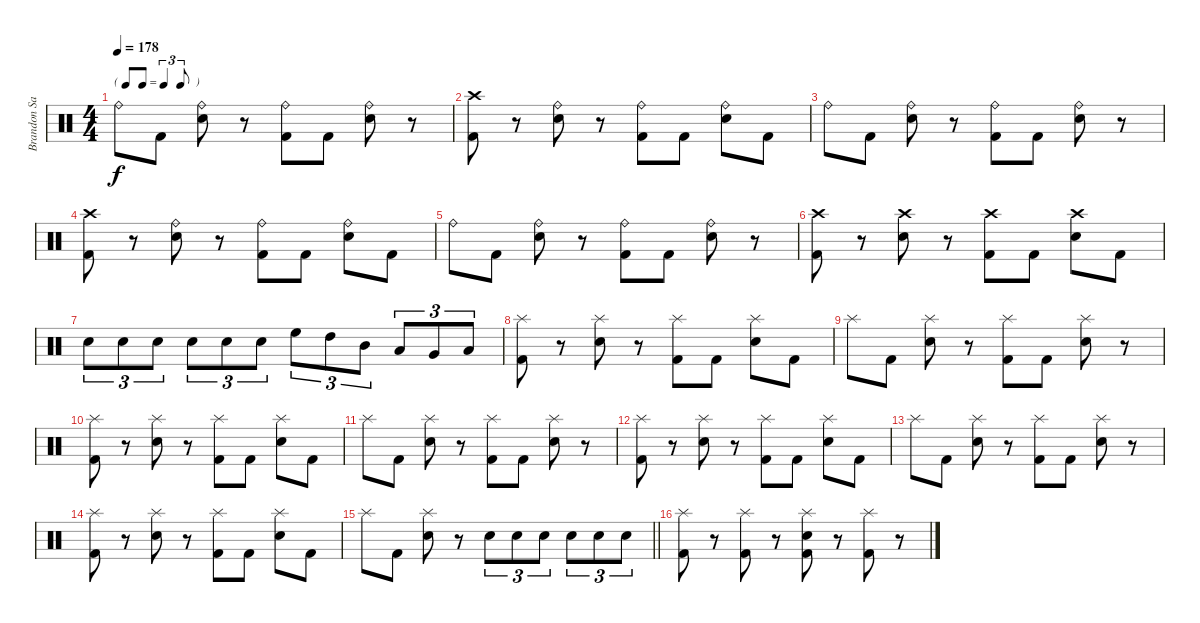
\track ("Brandon Saller" "Brandon Sa") {instrument percussion}
\staff {score}
\articulation defaults
\ts (4 4)
\tf triplet8th
\tempo 178
\clef neutral
\ks c "Ride (bell)".8{dy f} "Kick (hit) 2".8
("Ride (bell)" "Electric Snare (hit)").8 r.8 ("Ride (bell)" "Kick (hit) 2").8 "Kick (hit) 2".8 ("Ride (bell)" "Electric Snare (hit)").8 r.8 |
("Crash high (hit)" "Kick (hit) 2").8 r.8 ("Ride (bell)" "Electric Snare (hit)").8 r.8 ("Ride (bell)" "Kick (hit) 2").8 "Kick (hit) 2".8 ("Ride (bell)" "Electric Snare (hit)").8 "Kick (hit) 2".8 |
"Ride (bell)".8 "Kick (hit) 2".8 ("Ride (bell)" "Electric Snare (hit)").8 r.8 ("Ride (bell)" "Kick (hit) 2").8 "Kick (hit) 2".8 ("Ride (bell)" "Electric Snare (hit)").8 r.8 |
("Crash high (hit)" "Kick (hit) 2").8 r.8 ("Ride (bell)" "Electric Snare (hit)").8 r.8 ("Ride (bell)" "Kick (hit) 2").8 "Kick (hit) 2".8 ("Ride (bell)" "Electric Snare (hit)").8 "Kick (hit) 2".8 |
"Ride (bell)".8 "Kick (hit) 2".8 ("Ride (bell)" "Electric Snare (hit)").8 r.8 ("Ride (bell)" "Kick (hit) 2").8 "Kick (hit) 2".8 ("Ride (bell)" "Electric Snare (hit)").8 r.8 |
("Crash high (hit)" "Kick (hit) 2").8 r.8 ("Crash high (hit)" "Electric Snare (hit)").8 r.8 ("Crash high (hit)" "Kick (hit) 2").8 "Kick (hit) 2".8 ("Crash high (hit)" "Electric Snare (hit)").8 "Kick (hit) 2".8 |
"Electric Snare (hit)".8{tu (3 2)} "Electric Snare (hit)".8{tu (3 2)} "Electric Snare (hit)".8{tu (3 2)} "Electric Snare (hit)".8{tu (3 2)} "Electric Snare (hit)".8{tu (3 2)} "Electric Snare (hit)".8{tu (3 2)} "High Floor Tom (hit)".8{tu (3 2)} "High Tom (hit)".8{tu (3 2)} "Mid Tom (hit)".8{tu (3 2)} "Low Tom (hit)".8{tu (3 2)} "Very Low Tom (hit)".8{tu (3 2)} "Low Floor Tom (hit)".8{tu (3 2)} |
("Splash (hit)" "Kick (hit) 2").8 r.8 ("Splash (hit)" "Electric Snare (hit)").8 r.8 ("Splash (hit)" "Kick (hit) 2").8 "Kick (hit) 2".8 ("Splash (hit)" "Electric Snare (hit)").8 "Kick (hit) 2".8 |
"Splash (hit)".8 "Kick (hit) 2".8 ("Splash (hit)" "Electric Snare (hit)").8 r.8 ("Splash (hit)" "Kick (hit) 2").8 "Kick (hit) 2".8 ("Splash (hit)" "Electric Snare (hit)").8 r.8 |
("Splash (hit)" "Kick (hit) 2").8 r.8 ("Splash (hit)" "Electric Snare (hit)").8 r.8 ("Splash (hit)" "Kick (hit) 2").8 "Kick (hit) 2".8 ("Splash (hit)" "Electric Snare (hit)").8 "Kick (hit) 2".8 |
"Splash (hit)".8 "Kick (hit) 2".8 ("Splash (hit)" "Electric Snare (hit)").8 r.8 ("Splash (hit)" "Kick (hit) 2").8 "Kick (hit) 2".8 ("Splash (hit)" "Electric Snare (hit)").8 r.8 |
("Splash (hit)" "Kick (hit) 2").8 r.8 ("Splash (hit)" "Electric Snare (hit)").8 r.8 ("Splash (hit)" "Kick (hit) 2").8 "Kick (hit) 2".8 ("Splash (hit)" "Electric Snare (hit)").8 "Kick (hit) 2".8 |
"Splash (hit)".8 "Kick (hit) 2".8 ("Splash (hit)" "Electric Snare (hit)").8 r.8 ("Splash (hit)" "Kick (hit) 2").8 "Kick (hit) 2".8 ("Splash (hit)" "Electric Snare (hit)").8 r.8 |
("Splash (hit)" "Kick (hit) 2").8 r.8 ("Splash (hit)" "Electric Snare (hit)").8 r.8 ("Splash (hit)" "Kick (hit) 2").8 "Kick (hit) 2".8 ("Splash (hit)" "Electric Snare (hit)").8 "Kick (hit) 2".8 |
\barLineRight lightlight "Splash (hit)".8 "Kick (hit) 2".8
("Splash (hit)" "Electric Snare (hit)").8 r.8 "Electric Snare (hit)".8{tu (3 2)} "Electric Snare (hit)".8{tu (3 2)} "Electric Snare (hit)".8{tu (3 2)} "Electric Snare (hit)".8{tu (3 2)} "Electric Snare (hit)".8{tu (3 2)} "Electric Snare (hit)".8{tu (3 2)} |
("Splash (hit)" "Kick (hit) 2").8 r.8 ("Splash (hit)" "Kick (hit) 2").8 r.8 ("Splash (hit)" "Electric Snare (hit)" "Kick (hit) 2").8 r.8 ("Splash (hit)" "Kick (hit) 2").8 r.8
